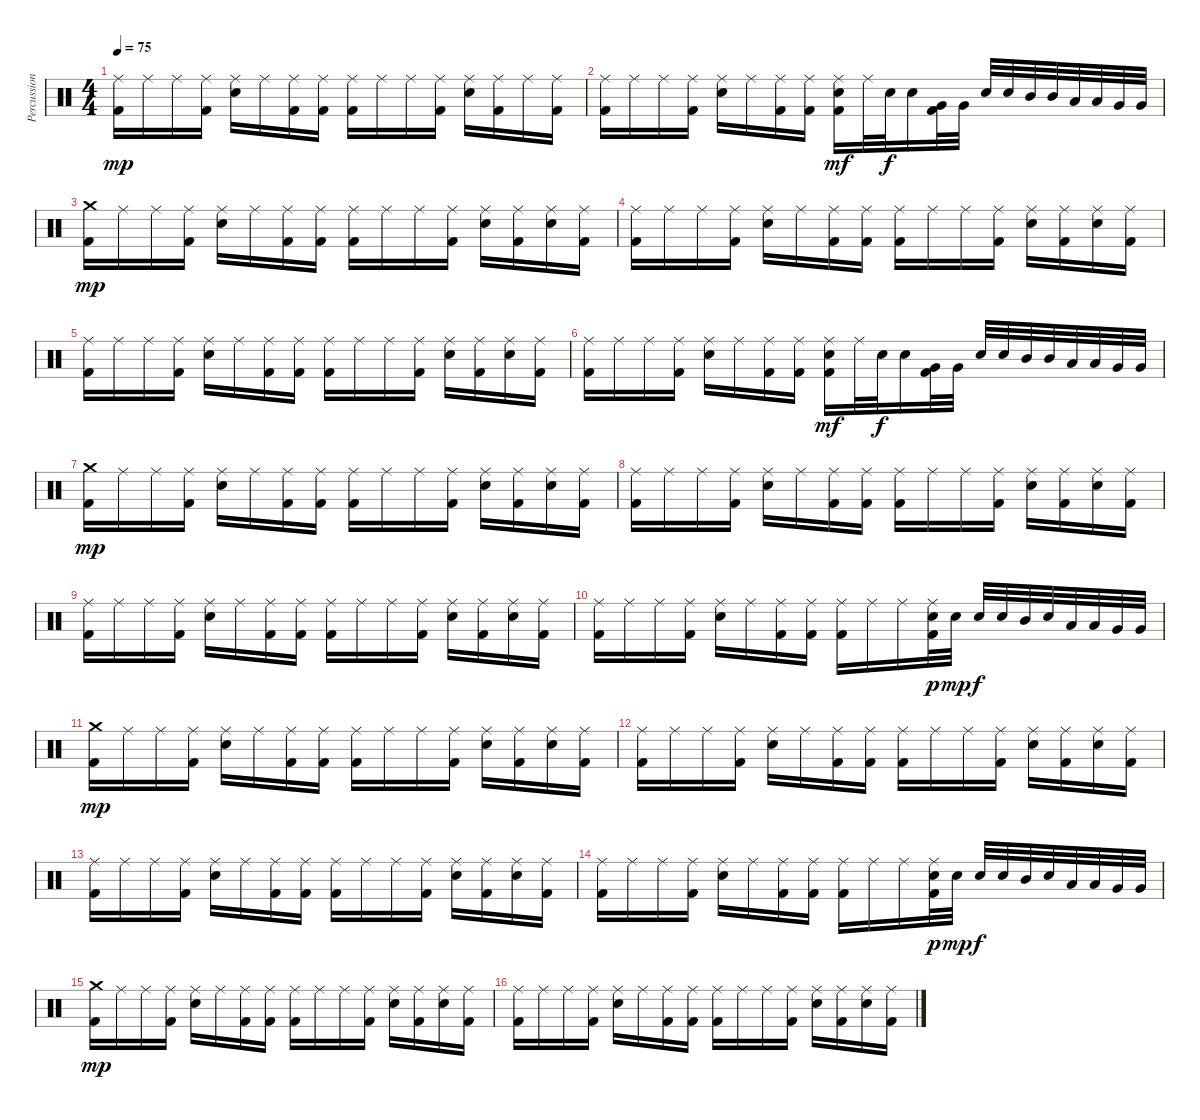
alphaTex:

\track ("Percussions" "Percussion") {instrument percussion}
\staff {score}
\articulation defaults
\ts (4 4)
\tempo 75
\clef neutral
\ks c
("Ride (middle)" "Kick (hit) 2").16{dy mp} "Ride (middle)".16 "Ride (middle)".16 ("Ride (middle)" "Kick (hit) 2").16 ("Ride (middle)" "Snare (hit) 2").16 "Ride (middle)".16 ("Ride (middle)" "Kick (hit) 2").16 ("Ride (middle)" "Kick (hit) 2").16 ("Ride (middle)" "Kick (hit) 2").16 "Ride (middle)".16 "Ride (middle)".16 ("Ride (middle)" "Kick (hit) 2").16 ("Ride (middle)" "Snare (hit) 2").16 ("Ride (middle)" "Kick (hit) 2").16 "Ride (middle)".16 ("Ride (middle)" "Kick (hit) 2").16 |
("Ride (middle)" "Kick (hit) 2").16 "Ride (middle)".16 "Ride (middle)".16 ("Ride (middle)" "Kick (hit) 2").16 ("Ride (middle)" "Snare (hit) 2").16 "Ride (middle)".16 ("Ride (middle)" "Kick (hit) 2").16 ("Ride (middle)" "Kick (hit) 2").16 ("Ride (middle)" "Snare (hit) 2" "Kick (hit) 2").16{dy mf} "Ride (middle)".32 "Snare (hit) 2".32{dy f} "Snare (hit) 2".16 ("Very Low Tom (hit)" "Kick (hit) 2").32 "Very Low Tom (hit)".32 "Snare (hit) 2".32 "Snare (hit) 2".32 "Mid Tom (hit)".32 "Mid Tom (hit)".32 "Low Tom (hit)".32 "Low Tom (hit)".32 "Very Low Tom (hit)".32 "Very Low Tom (hit)".32 |
("Crash medium (hit)" "Kick (hit) 2").16{dy mp} "Ride (middle)".16 "Ride (middle)".16 ("Ride (middle)" "Kick (hit) 2").16 ("Ride (middle)" "Snare (hit) 2").16 "Ride (middle)".16 ("Ride (middle)" "Kick (hit) 2").16 ("Ride (middle)" "Kick (hit) 2").16 ("Ride (middle)" "Kick (hit) 2").16 "Ride (middle)".16 "Ride (middle)".16 ("Ride (middle)" "Kick (hit) 2").16 ("Ride (middle)" "Snare (hit) 2").16 ("Ride (middle)" "Kick (hit) 2").16 ("Ride (middle)" "Snare (hit) 2").16 ("Ride (middle)" "Kick (hit) 2").16 |
("Ride (middle)" "Kick (hit) 2").16 "Ride (middle)".16 "Ride (middle)".16 ("Ride (middle)" "Kick (hit) 2").16 ("Ride (middle)" "Snare (hit) 2").16 "Ride (middle)".16 ("Ride (middle)" "Kick (hit) 2").16 ("Ride (middle)" "Kick (hit) 2").16 ("Ride (middle)" "Kick (hit) 2").16 "Ride (middle)".16 "Ride (middle)".16 ("Ride (middle)" "Kick (hit) 2").16 ("Ride (middle)" "Snare (hit) 2").16 ("Ride (middle)" "Kick (hit) 2").16 ("Ride (middle)" "Snare (hit) 2").16 ("Ride (middle)" "Kick (hit) 2").16 |
("Ride (middle)" "Kick (hit) 2").16 "Ride (middle)".16 "Ride (middle)".16 ("Ride (middle)" "Kick (hit) 2").16 ("Ride (middle)" "Snare (hit) 2").16 "Ride (middle)".16 ("Ride (middle)" "Kick (hit) 2").16 ("Ride (middle)" "Kick (hit) 2").16 ("Ride (middle)" "Kick (hit) 2").16 "Ride (middle)".16 "Ride (middle)".16 ("Ride (middle)" "Kick (hit) 2").16 ("Ride (middle)" "Snare (hit) 2").16 ("Ride (middle)" "Kick (hit) 2").16 ("Ride (middle)" "Snare (hit) 2").16 ("Ride (middle)" "Kick (hit) 2").16 |
("Ride (middle)" "Kick (hit) 2").16 "Ride (middle)".16 "Ride (middle)".16 ("Ride (middle)" "Kick (hit) 2").16 ("Ride (middle)" "Snare (hit) 2").16 "Ride (middle)".16 ("Ride (middle)" "Kick (hit) 2").16 ("Ride (middle)" "Kick (hit) 2").16 ("Ride (middle)" "Snare (hit) 2" "Kick (hit) 2").16{dy mf} "Ride (middle)".32 "Snare (hit) 2".32{dy f} "Snare (hit) 2".16 ("Very Low Tom (hit)" "Kick (hit) 2").32 "Very Low Tom (hit)".32 "Snare (hit) 2".32 "Snare (hit) 2".32 "Mid Tom (hit)".32 "Mid Tom (hit)".32 "Low Tom (hit)".32 "Low Tom (hit)".32 "Very Low Tom (hit)".32 "Very Low Tom (hit)".32 |
("Crash medium (hit)" "Kick (hit) 2").16{dy mp} "Ride (middle)".16 "Ride (middle)".16 ("Ride (middle)" "Kick (hit) 2").16 ("Ride (middle)" "Snare (hit) 2").16 "Ride (middle)".16 ("Ride (middle)" "Kick (hit) 2").16 ("Ride (middle)" "Kick (hit) 2").16 ("Ride (middle)" "Kick (hit) 2").16 "Ride (middle)".16 "Ride (middle)".16 ("Ride (middle)" "Kick (hit) 2").16 ("Ride (middle)" "Snare (hit) 2").16 ("Ride (middle)" "Kick (hit) 2").16 ("Ride (middle)" "Snare (hit) 2").16 ("Ride (middle)" "Kick (hit) 2").16 |
("Ride (middle)" "Kick (hit) 2").16 "Ride (middle)".16 "Ride (middle)".16 ("Ride (middle)" "Kick (hit) 2").16 ("Ride (middle)" "Snare (hit) 2").16 "Ride (middle)".16 ("Ride (middle)" "Kick (hit) 2").16 ("Ride (middle)" "Kick (hit) 2").16 ("Ride (middle)" "Kick (hit) 2").16 "Ride (middle)".16 "Ride (middle)".16 ("Ride (middle)" "Kick (hit) 2").16 ("Ride (middle)" "Snare (hit) 2").16 ("Ride (middle)" "Kick (hit) 2").16 ("Ride (middle)" "Snare (hit) 2").16 ("Ride (middle)" "Kick (hit) 2").16 |
("Ride (middle)" "Kick (hit) 2").16 "Ride (middle)".16 "Ride (middle)".16 ("Ride (middle)" "Kick (hit) 2").16 ("Ride (middle)" "Snare (hit) 2").16 "Ride (middle)".16 ("Ride (middle)" "Kick (hit) 2").16 ("Ride (middle)" "Kick (hit) 2").16 ("Ride (middle)" "Kick (hit) 2").16 "Ride (middle)".16 "Ride (middle)".16 ("Ride (middle)" "Kick (hit) 2").16 ("Ride (middle)" "Snare (hit) 2").16 ("Ride (middle)" "Kick (hit) 2").16 ("Ride (middle)" "Snare (hit) 2").16 ("Ride (middle)" "Kick (hit) 2").16 |
("Ride (middle)" "Kick (hit) 2").16 "Ride (middle)".16 "Ride (middle)".16 ("Ride (middle)" "Kick (hit) 2").16 ("Ride (middle)" "Snare (hit) 2").16 "Ride (middle)".16 ("Ride (middle)" "Kick (hit) 2").16 ("Ride (middle)" "Kick (hit) 2").16 ("Ride (middle)" "Kick (hit) 2").16 "Ride (middle)".16 "Ride (middle)".16 ("Ride (middle)" "Snare (hit) 2" "Kick (hit) 2").32{dy p} "Snare (hit) 2".32{dy mp} "Snare (hit) 2".32{dy f} "Snare (hit) 2".32 "Mid Tom (hit)".32 "Snare (hit) 2".32 "Low Tom (hit)".32 "Low Tom (hit)".32 "Very Low Tom (hit)".32 "Very Low Tom (hit)".32 |
("Crash medium (hit)" "Kick (hit) 2").16{dy mp} "Ride (middle)".16 "Ride (middle)".16 ("Ride (middle)" "Kick (hit) 2").16 ("Ride (middle)" "Snare (hit) 2").16 "Ride (middle)".16 ("Ride (middle)" "Kick (hit) 2").16 ("Ride (middle)" "Kick (hit) 2").16 ("Ride (middle)" "Kick (hit) 2").16 "Ride (middle)".16 "Ride (middle)".16 ("Ride (middle)" "Kick (hit) 2").16 ("Ride (middle)" "Snare (hit) 2").16 ("Ride (middle)" "Kick (hit) 2").16 ("Ride (middle)" "Snare (hit) 2").16 ("Ride (middle)" "Kick (hit) 2").16 |
("Ride (middle)" "Kick (hit) 2").16 "Ride (middle)".16 "Ride (middle)".16 ("Ride (middle)" "Kick (hit) 2").16 ("Ride (middle)" "Snare (hit) 2").16 "Ride (middle)".16 ("Ride (middle)" "Kick (hit) 2").16 ("Ride (middle)" "Kick (hit) 2").16 ("Ride (middle)" "Kick (hit) 2").16 "Ride (middle)".16 "Ride (middle)".16 ("Ride (middle)" "Kick (hit) 2").16 ("Ride (middle)" "Snare (hit) 2").16 ("Ride (middle)" "Kick (hit) 2").16 ("Ride (middle)" "Snare (hit) 2").16 ("Ride (middle)" "Kick (hit) 2").16 |
("Ride (middle)" "Kick (hit) 2").16 "Ride (middle)".16 "Ride (middle)".16 ("Ride (middle)" "Kick (hit) 2").16 ("Ride (middle)" "Snare (hit) 2").16 "Ride (middle)".16 ("Ride (middle)" "Kick (hit) 2").16 ("Ride (middle)" "Kick (hit) 2").16 ("Ride (middle)" "Kick (hit) 2").16 "Ride (middle)".16 "Ride (middle)".16 ("Ride (middle)" "Kick (hit) 2").16 ("Ride (middle)" "Snare (hit) 2").16 ("Ride (middle)" "Kick (hit) 2").16 ("Ride (middle)" "Snare (hit) 2").16 ("Ride (middle)" "Kick (hit) 2").16 |
("Ride (middle)" "Kick (hit) 2").16 "Ride (middle)".16 "Ride (middle)".16 ("Ride (middle)" "Kick (hit) 2").16 ("Ride (middle)" "Snare (hit) 2").16 "Ride (middle)".16 ("Ride (middle)" "Kick (hit) 2").16 ("Ride (middle)" "Kick (hit) 2").16 ("Ride (middle)" "Kick (hit) 2").16 "Ride (middle)".16 "Ride (middle)".16 ("Ride (middle)" "Snare (hit) 2" "Kick (hit) 2").32{dy p} "Snare (hit) 2".32{dy mp} "Snare (hit) 2".32{dy f} "Snare (hit) 2".32 "Mid Tom (hit)".32 "Snare (hit) 2".32 "Low Tom (hit)".32 "Low Tom (hit)".32 "Very Low Tom (hit)".32 "Very Low Tom (hit)".32 |
("Crash medium (hit)" "Kick (hit) 2").16{dy mp} "Ride (middle)".16 "Ride (middle)".16 ("Ride (middle)" "Kick (hit) 2").16 ("Ride (middle)" "Snare (hit) 2").16 "Ride (middle)".16 ("Ride (middle)" "Kick (hit) 2").16 ("Ride (middle)" "Kick (hit) 2").16 ("Ride (middle)" "Kick (hit) 2").16 "Ride (middle)".16 "Ride (middle)".16 ("Ride (middle)" "Kick (hit) 2").16 ("Ride (middle)" "Snare (hit) 2").16 ("Ride (middle)" "Kick (hit) 2").16 ("Ride (middle)" "Snare (hit) 2").16 ("Ride (middle)" "Kick (hit) 2").16 |
("Ride (middle)" "Kick (hit) 2").16 "Ride (middle)".16 "Ride (middle)".16 ("Ride (middle)" "Kick (hit) 2").16 ("Ride (middle)" "Snare (hit) 2").16 "Ride (middle)".16 ("Ride (middle)" "Kick (hit) 2").16 ("Ride (middle)" "Kick (hit) 2").16 ("Ride (middle)" "Kick (hit) 2").16 "Ride (middle)".16 "Ride (middle)".16 ("Ride (middle)" "Kick (hit) 2").16 ("Ride (middle)" "Snare (hit) 2").16 ("Ride (middle)" "Kick (hit) 2").16 ("Ride (middle)" "Snare (hit) 2").16 ("Ride (middle)" "Kick (hit) 2").16
